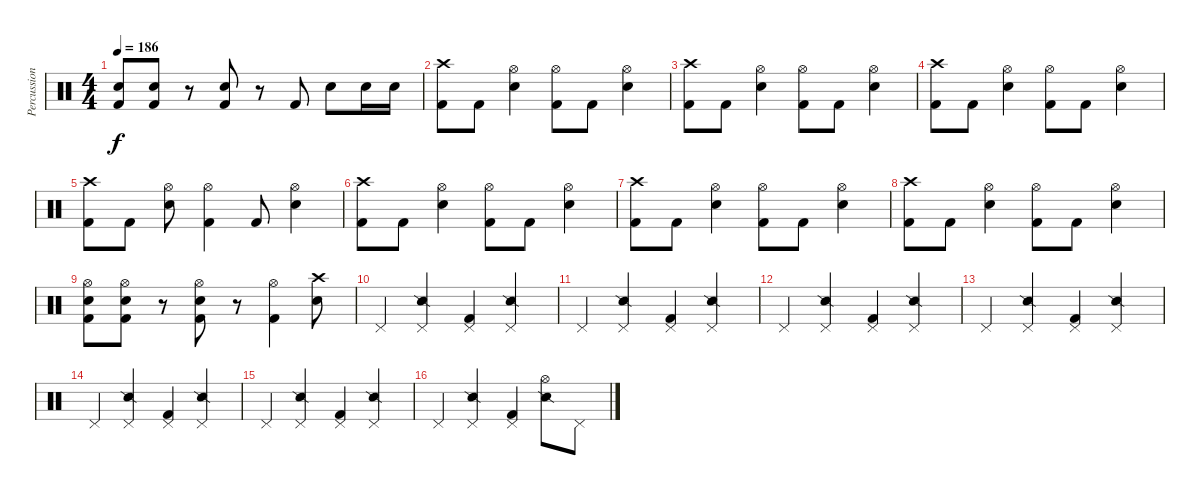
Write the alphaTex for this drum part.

\track ("Percussion" "Percussion") {instrument percussion}
\staff {score}
\articulation defaults
\ts (4 4)
\tempo 186
\clef neutral
\ks c
("Electric Snare (hit)" "Kick (hit) 2").8{dy f} ("Electric Snare (hit)" "Kick (hit) 2").8 r.8 ("Electric Snare (hit)" "Kick (hit) 2").8 r.8 "Kick (hit) 2".8 "Electric Snare (hit)".8 "Electric Snare (hit)".16 "Electric Snare (hit)".16 |
("Crash high (hit)" "Kick (hit) 2").8 "Kick (hit) 2".8 ("Hi-Hat (open)" "Electric Snare (hit)").4 ("Hi-Hat (open)" "Kick (hit) 2").8 "Kick (hit) 2".8 ("Hi-Hat (open)" "Electric Snare (hit)").4 |
("Crash high (hit)" "Kick (hit) 2").8 "Kick (hit) 2".8 ("Hi-Hat (open)" "Electric Snare (hit)").4 ("Hi-Hat (open)" "Kick (hit) 2").8 "Kick (hit) 2".8 ("Hi-Hat (open)" "Electric Snare (hit)").4 |
("Crash high (hit)" "Kick (hit) 2").8 "Kick (hit) 2".8 ("Hi-Hat (open)" "Electric Snare (hit)").4 ("Hi-Hat (open)" "Kick (hit) 2").8 "Kick (hit) 2".8 ("Hi-Hat (open)" "Electric Snare (hit)").4 |
("Crash high (hit)" "Kick (hit) 2").8 "Kick (hit) 2".8 ("Hi-Hat (open)" "Electric Snare (hit)").8 ("Hi-Hat (open)" "Kick (hit) 2").4 "Kick (hit) 2".8 ("Hi-Hat (open)" "Electric Snare (hit)").4 |
("Crash high (hit)" "Kick (hit) 2").8 "Kick (hit) 2".8 ("Hi-Hat (open)" "Electric Snare (hit)").4 ("Hi-Hat (open)" "Kick (hit) 2").8 "Kick (hit) 2".8 ("Hi-Hat (open)" "Electric Snare (hit)").4 |
("Crash high (hit)" "Kick (hit) 2").8 "Kick (hit) 2".8 ("Hi-Hat (open)" "Electric Snare (hit)").4 ("Hi-Hat (open)" "Kick (hit) 2").8 "Kick (hit) 2".8 ("Hi-Hat (open)" "Electric Snare (hit)").4 |
("Crash high (hit)" "Kick (hit) 2").8 "Kick (hit) 2".8 ("Hi-Hat (open)" "Electric Snare (hit)").4 ("Hi-Hat (open)" "Kick (hit) 2").8 "Kick (hit) 2".8 ("Hi-Hat (open)" "Electric Snare (hit)").4 |
("Hi-Hat (open)" "Electric Snare (hit)" "Kick (hit) 2").8 ("Hi-Hat (open)" "Electric Snare (hit)" "Kick (hit) 2").8 r.8 ("Hi-Hat (open)" "Electric Snare (hit)" "Kick (hit) 2").8 r.8 ("Hi-Hat (open)" "Kick (hit) 2").4 ("Crash high (hit)" "Electric Snare (hit)").8 |
"Pedal Hi-Hat (hit)".4 ("Pedal Hi-Hat (hit)" "Snare (side stick) 2").4 ("Pedal Hi-Hat (hit)" "Kick (hit) 2").4 ("Pedal Hi-Hat (hit)" "Snare (side stick) 2").4 |
"Pedal Hi-Hat (hit)".4 ("Pedal Hi-Hat (hit)" "Snare (side stick) 2").4 ("Pedal Hi-Hat (hit)" "Kick (hit) 2").4 ("Pedal Hi-Hat (hit)" "Snare (side stick) 2").4 |
"Pedal Hi-Hat (hit)".4 ("Pedal Hi-Hat (hit)" "Snare (side stick) 2").4 ("Pedal Hi-Hat (hit)" "Kick (hit) 2").4 ("Pedal Hi-Hat (hit)" "Snare (side stick) 2").4 |
"Pedal Hi-Hat (hit)".4 ("Pedal Hi-Hat (hit)" "Snare (side stick) 2").4 ("Pedal Hi-Hat (hit)" "Kick (hit) 2").4 ("Pedal Hi-Hat (hit)" "Snare (side stick) 2").4 |
"Pedal Hi-Hat (hit)".4 ("Pedal Hi-Hat (hit)" "Snare (side stick) 2").4 ("Pedal Hi-Hat (hit)" "Kick (hit) 2").4 ("Pedal Hi-Hat (hit)" "Snare (side stick) 2").4 |
"Pedal Hi-Hat (hit)".4 ("Pedal Hi-Hat (hit)" "Snare (side stick) 2").4 ("Pedal Hi-Hat (hit)" "Kick (hit) 2").4 ("Pedal Hi-Hat (hit)" "Snare (side stick) 2").4 |
"Pedal Hi-Hat (hit)".4 ("Pedal Hi-Hat (hit)" "Snare (side stick) 2").4 ("Pedal Hi-Hat (hit)" "Kick (hit) 2").4 ("Hi-Hat (open)" "Snare (side stick) 2").8 "Pedal Hi-Hat (hit)".8
